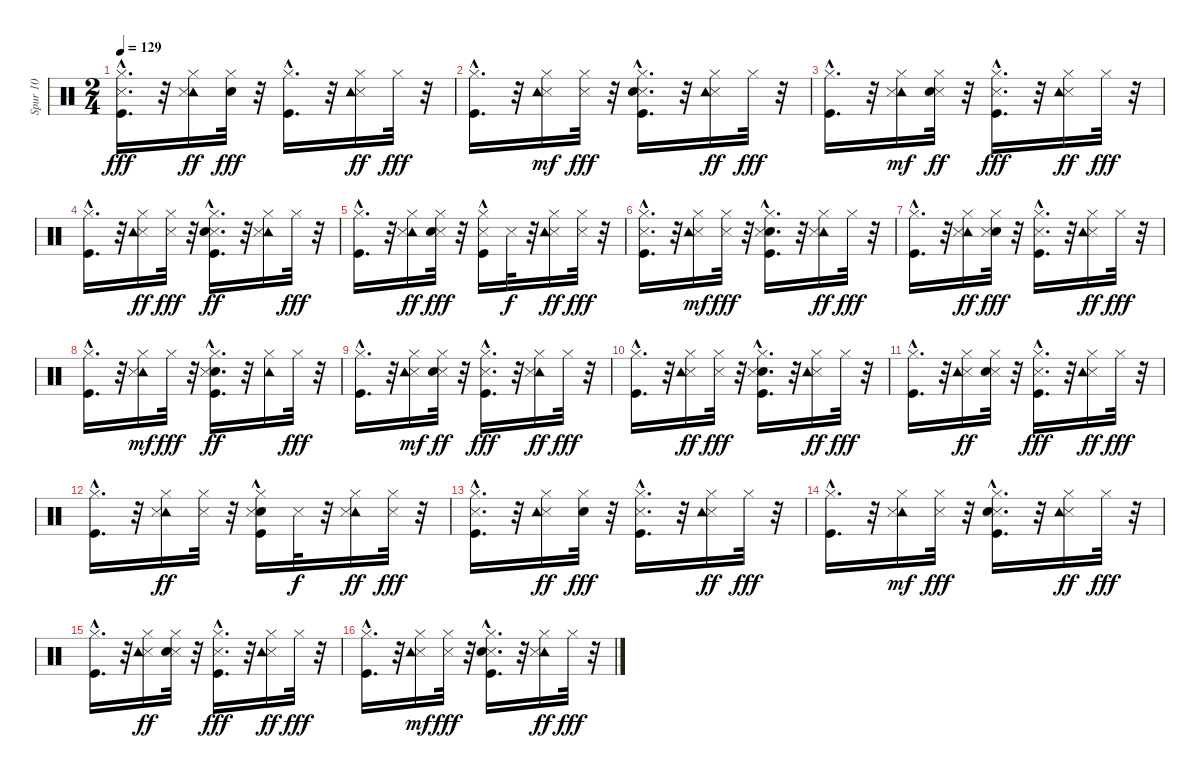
\track ("Spur 10" "Spur 10") {instrument percussion}
\staff {score}
\articulation defaults
\ts (2 4)
\tempo 129
\clef neutral
\ks c
("Kick (hit)"{hac} "Snare (side stick) 3" "Hi-Hat (closed)").16{d dy fff} r.32 ("Tambourine (hit)" "Hi-Hat (closed)" "Snare (side stick) 3").16{dy ff} ("Snare (hit) 2" "Hi-Hat (closed)").32{dy fff} r.32 ("Hi-Hat (closed)" "Kick (hit)"{hac}).16{d} r.32 ("Snare (side stick) 3" "Tambourine (hit)" "Hi-Hat (closed)").16{dy ff} "Hi-Hat (closed)".32{dy fff} r.32 |
("Kick (hit)"{hac} "Hi-Hat (closed)").16{d} r.32 ("Snare (side stick) 3" "Hi-Hat (closed)" "Tambourine (hit)").16{dy mf} ("Hi-Hat (closed)" "Snare (side stick) 3").32{dy fff} r.32 ("Snare (side stick) 3" "Hi-Hat (closed)" "Snare (hit) 2" "Kick (hit)"{hac}).16{d} r.32 ("Snare (side stick) 3" "Hi-Hat (closed)" "Tambourine (hit)").16{dy ff} "Hi-Hat (closed)".32{dy fff} r.32 |
("Kick (hit)"{hac} "Hi-Hat (closed)").16{d} r.32 ("Hi-Hat (closed)" "Tambourine (hit)" "Snare (side stick) 3").16{dy mf} ("Snare (side stick) 3" "Hi-Hat (closed)" "Snare (hit) 2").32{dy ff} r.32 ("Kick (hit)"{hac} "Snare (side stick) 3" "Hi-Hat (closed)").16{d dy fff} r.32 ("Snare (side stick) 3" "Hi-Hat (closed)" "Tambourine (hit)").16{dy ff} "Hi-Hat (closed)".32{dy fff} r.32 |
("Kick (hit)"{hac} "Hi-Hat (closed)").16{d} r.32 ("Snare (side stick) 3" "Tambourine (hit)" "Hi-Hat (closed)").16{dy ff} ("Snare (side stick) 3" "Hi-Hat (closed)").32{dy fff} r.32 ("Kick (hit)"{hac} "Snare (side stick) 3" "Hi-Hat (closed)" "Snare (hit) 2").16{d dy ff} r.32 ("Tambourine (hit)" "Snare (side stick) 3" "Hi-Hat (closed)").16 "Hi-Hat (closed)".32{dy fff} r.32 |
("Hi-Hat (closed)" "Kick (hit)"{hac}).16{d} r.32 ("Tambourine (hit)" "Snare (side stick) 3" "Hi-Hat (closed)").16{dy ff} ("Snare (side stick) 3" "Snare (hit) 2" "Hi-Hat (closed)").32{dy fff} r.32 ("Snare (side stick) 3" "Kick (hit)"{hac} "Hi-Hat (closed)").16 "Snare (side stick) 3".32{dy f} r.32 ("Snare (side stick) 3" "Hi-Hat (closed)" "Tambourine (hit)").16{dy ff} ("Snare (side stick) 3" "Hi-Hat (closed)").32{dy fff} r.32 |
("Kick (hit)"{hac} "Snare (side stick) 3" "Hi-Hat (closed)").16{d} r.32 ("Snare (side stick) 3" "Hi-Hat (closed)" "Tambourine (hit)").16{dy mf} ("Hi-Hat (closed)" "Snare (side stick) 3").32{dy fff} r.32 ("Snare (hit) 2" "Snare (side stick) 3" "Hi-Hat (closed)" "Kick (hit)"{hac}).16{d} r.32 ("Hi-Hat (closed)" "Tambourine (hit)" "Snare (side stick) 3").16{dy ff} "Hi-Hat (closed)".32{dy fff} r.32 |
("Hi-Hat (closed)" "Kick (hit)"{hac}).16{d} r.32 ("Tambourine (hit)" "Snare (side stick) 3" "Hi-Hat (closed)").16{dy ff} ("Snare (hit) 2" "Snare (side stick) 3" "Hi-Hat (closed)").32{dy fff} r.32 ("Hi-Hat (closed)" "Kick (hit)"{hac} "Snare (side stick) 3").16{d} r.32 ("Hi-Hat (closed)" "Snare (side stick) 3" "Tambourine (hit)").16{dy ff} "Hi-Hat (closed)".32{dy fff} r.32 |
("Kick (hit)"{hac} "Hi-Hat (closed)").16{d} r.32 ("Hi-Hat (closed)" "Tambourine (hit)" "Snare (side stick) 3").16{dy mf} "Hi-Hat (closed)".32{dy fff} r.32 ("Hi-Hat (closed)" "Snare (hit) 2" "Kick (hit)"{hac} "Snare (side stick) 3").16{d dy ff} r.32 ("Hi-Hat (closed)" "Tambourine (hit)").16 "Hi-Hat (closed)".32{dy fff} r.32 |
("Hi-Hat (closed)" "Kick (hit)"{hac}).16{d} r.32 ("Snare (side stick) 3" "Hi-Hat (closed)" "Tambourine (hit)").16{dy mf} ("Snare (side stick) 3" "Hi-Hat (closed)" "Snare (hit) 2").32{dy ff} r.32 ("Snare (side stick) 3" "Hi-Hat (closed)" "Kick (hit)"{hac}).16{d dy fff} r.32 ("Hi-Hat (closed)" "Tambourine (hit)" "Snare (side stick) 3").16{dy ff} "Hi-Hat (closed)".32{dy fff} r.32 |
("Kick (hit)"{hac} "Hi-Hat (closed)").16{d} r.32 ("Snare (side stick) 3" "Tambourine (hit)" "Hi-Hat (closed)").16{dy ff} ("Snare (side stick) 3" "Hi-Hat (closed)").32{dy fff} r.32 ("Hi-Hat (closed)" "Snare (hit) 2" "Kick (hit)"{hac} "Snare (side stick) 3").16{d} r.32 ("Snare (side stick) 3" "Hi-Hat (closed)" "Tambourine (hit)").16{dy ff} "Hi-Hat (closed)".32{dy fff} r.32 |
("Hi-Hat (closed)" "Kick (hit)"{hac}).16{d} r.32 ("Snare (side stick) 3" "Tambourine (hit)" "Hi-Hat (closed)").16{dy ff} ("Snare (side stick) 3" "Hi-Hat (closed)" "Snare (hit) 2").32 r.32 ("Snare (side stick) 3" "Hi-Hat (closed)" "Kick (hit)"{hac}).16{d dy fff} r.32 ("Hi-Hat (closed)" "Snare (side stick) 3" "Tambourine (hit)").16{dy ff} "Hi-Hat (closed)".32{dy fff} r.32 |
("Hi-Hat (closed)" "Kick (hit)"{hac}).16{d} r.32 ("Tambourine (hit)" "Hi-Hat (closed)" "Snare (side stick) 3").16{dy ff} ("Hi-Hat (closed)" "Snare (side stick) 3").32 r.32 ("Kick (hit)"{hac} "Snare (hit) 2" "Snare (side stick) 3" "Hi-Hat (closed)").16 "Snare (side stick) 3".32{dy f} r.32 ("Tambourine (hit)" "Snare (side stick) 3" "Hi-Hat (closed)").16{dy ff} ("Snare (side stick) 3" "Hi-Hat (closed)").32{dy fff} r.32 |
("Snare (side stick) 3" "Hi-Hat (closed)" "Kick (hit)"{hac}).16{d} r.32 ("Snare (side stick) 3" "Tambourine (hit)" "Hi-Hat (closed)").16{dy ff} ("Snare (hit) 2" "Hi-Hat (closed)").32{dy fff} r.32 ("Snare (side stick) 3" "Kick (hit)"{hac} "Hi-Hat (closed)").16{d} r.32 ("Snare (side stick) 3" "Tambourine (hit)" "Hi-Hat (closed)").16{dy ff} "Hi-Hat (closed)".32{dy fff} r.32 |
("Kick (hit)"{hac} "Hi-Hat (closed)").16{d} r.32 ("Hi-Hat (closed)" "Tambourine (hit)" "Snare (side stick) 3").16{dy mf} ("Hi-Hat (closed)" "Snare (side stick) 3").32{dy fff} r.32 ("Hi-Hat (closed)" "Snare (side stick) 3" "Snare (hit) 2" "Kick (hit)"{hac}).16{d} r.32 ("Hi-Hat (closed)" "Snare (side stick) 3" "Tambourine (hit)").16{dy ff} "Hi-Hat (closed)".32{dy fff} r.32 |
("Kick (hit)"{hac} "Hi-Hat (closed)").16{d} r.32 ("Snare (side stick) 3" "Tambourine (hit)" "Hi-Hat (closed)").16{dy ff} ("Snare (side stick) 3" "Hi-Hat (closed)" "Snare (hit) 2").32 r.32 ("Hi-Hat (closed)" "Snare (side stick) 3" "Kick (hit)"{hac}).16{d dy fff} r.32 ("Hi-Hat (closed)" "Snare (side stick) 3" "Tambourine (hit)").16{dy ff} "Hi-Hat (closed)".32{dy fff} r.32 |
("Kick (hit)"{hac} "Hi-Hat (closed)").16{d} r.32 ("Snare (side stick) 3" "Hi-Hat (closed)" "Tambourine (hit)").16{dy mf} ("Hi-Hat (closed)" "Snare (side stick) 3").32{dy fff} r.32 ("Hi-Hat (closed)" "Snare (side stick) 3" "Snare (hit) 2" "Kick (hit)"{hac}).16{d} r.32 ("Hi-Hat (closed)" "Tambourine (hit)" "Snare (side stick) 3").16{dy ff} "Hi-Hat (closed)".32{dy fff} r.32
